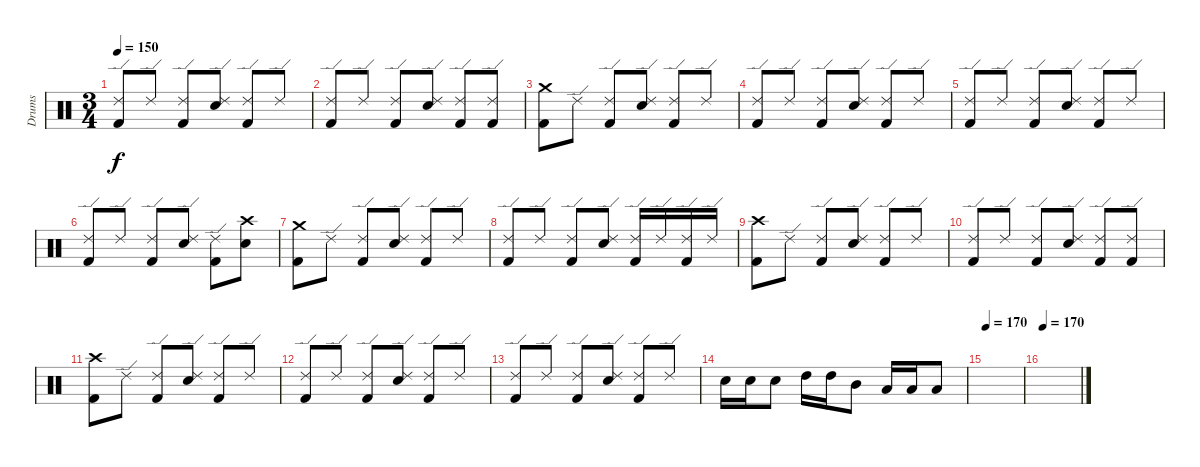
\track ("Drums" "Drums") {instrument percussion}
\staff {score}
\articulation defaults
\ts (3 4)
\tempo 150
\clef neutral
\ks c
("Ride (edge) 2" "Kick (hit) 2").8{dy f} "Ride (edge) 2".8 ("Ride (edge) 2" "Kick (hit) 2").8 ("Ride (edge) 2" "Snare (hit) 2").8 ("Ride (edge) 2" "Kick (hit) 2").8 "Ride (edge) 2".8 |
("Ride (edge) 2" "Kick (hit) 2").8 "Ride (edge) 2".8 ("Ride (edge) 2" "Kick (hit) 2").8 ("Ride (edge) 2" "Snare (hit) 2").8 ("Ride (edge) 2" "Kick (hit) 2").8 ("Ride (edge) 2" "Kick (hit) 2").8 |
("Crash medium (hit)" "Kick (hit) 2").8 "Ride (edge) 2".8 ("Ride (edge) 2" "Kick (hit) 2").8 ("Ride (edge) 2" "Snare (hit) 2").8 ("Ride (edge) 2" "Kick (hit) 2").8 "Ride (edge) 2".8 |
("Ride (edge) 2" "Kick (hit) 2").8 "Ride (edge) 2".8 ("Ride (edge) 2" "Kick (hit) 2").8 ("Ride (edge) 2" "Snare (hit) 2").8 ("Ride (edge) 2" "Kick (hit) 2").8 "Ride (edge) 2".8 |
("Ride (edge) 2" "Kick (hit) 2").8 "Ride (edge) 2".8 ("Ride (edge) 2" "Kick (hit) 2").8 ("Ride (edge) 2" "Snare (hit) 2").8 ("Ride (edge) 2" "Kick (hit) 2").8 "Ride (edge) 2".8 |
("Ride (edge) 2" "Kick (hit) 2").8 "Ride (edge) 2".8 ("Ride (edge) 2" "Kick (hit) 2").8 ("Ride (edge) 2" "Snare (hit) 2").8 ("Ride (edge) 2" "Kick (hit) 2").8 ("Crash high (hit)" "Snare (hit) 2").8 |
("Crash medium (hit)" "Kick (hit) 2").8 "Ride (edge) 2".8 ("Ride (edge) 2" "Kick (hit) 2").8 ("Ride (edge) 2" "Snare (hit) 2").8 ("Ride (edge) 2" "Kick (hit) 2").8 "Ride (edge) 2".8 |
("Ride (edge) 2" "Kick (hit) 2").8 "Ride (edge) 2".8 ("Ride (edge) 2" "Kick (hit) 2").8 ("Ride (edge) 2" "Snare (hit) 2").8 ("Ride (edge) 2" "Kick (hit) 2").16 "Ride (edge) 2".16 ("Ride (edge) 2" "Kick (hit) 2").16 "Ride (edge) 2".16 |
("Crash high (hit)" "Kick (hit) 2").8 "Ride (edge) 2".8 ("Ride (edge) 2" "Kick (hit) 2").8 ("Ride (edge) 2" "Snare (hit) 2").8 ("Ride (edge) 2" "Kick (hit) 2").8 "Ride (edge) 2".8 |
("Ride (edge) 2" "Kick (hit) 2").8 "Ride (edge) 2".8 ("Ride (edge) 2" "Kick (hit) 2").8 ("Ride (edge) 2" "Snare (hit) 2").8 ("Ride (edge) 2" "Kick (hit) 2").8 ("Ride (edge) 2" "Kick (hit) 2").8 |
("Crash high (hit)" "Kick (hit) 2").8 "Ride (edge) 2".8 ("Ride (edge) 2" "Kick (hit) 2").8 ("Ride (edge) 2" "Snare (hit) 2").8 ("Ride (edge) 2" "Kick (hit) 2").8 "Ride (edge) 2".8 |
("Ride (edge) 2" "Kick (hit) 2").8 "Ride (edge) 2".8 ("Ride (edge) 2" "Kick (hit) 2").8 ("Ride (edge) 2" "Snare (hit) 2").8 ("Ride (edge) 2" "Kick (hit) 2").8 "Ride (edge) 2".8 |
("Ride (edge) 2" "Kick (hit) 2").8 "Ride (edge) 2".8 ("Ride (edge) 2" "Kick (hit) 2").8 ("Ride (edge) 2" "Snare (hit) 2").8 ("Ride (edge) 2" "Kick (hit) 2").8 "Ride (edge) 2".8 |
"Snare (hit) 2".16 "Snare (hit) 2".16 "Snare (hit) 2".8 "High Tom (hit)".16 "High Tom (hit)".16 "Mid Tom (hit)".8 "Low Tom (hit)".16 "Low Tom (hit)".16 "Low Tom (hit)".8 |
\tempo 170
|
\tempo 170
